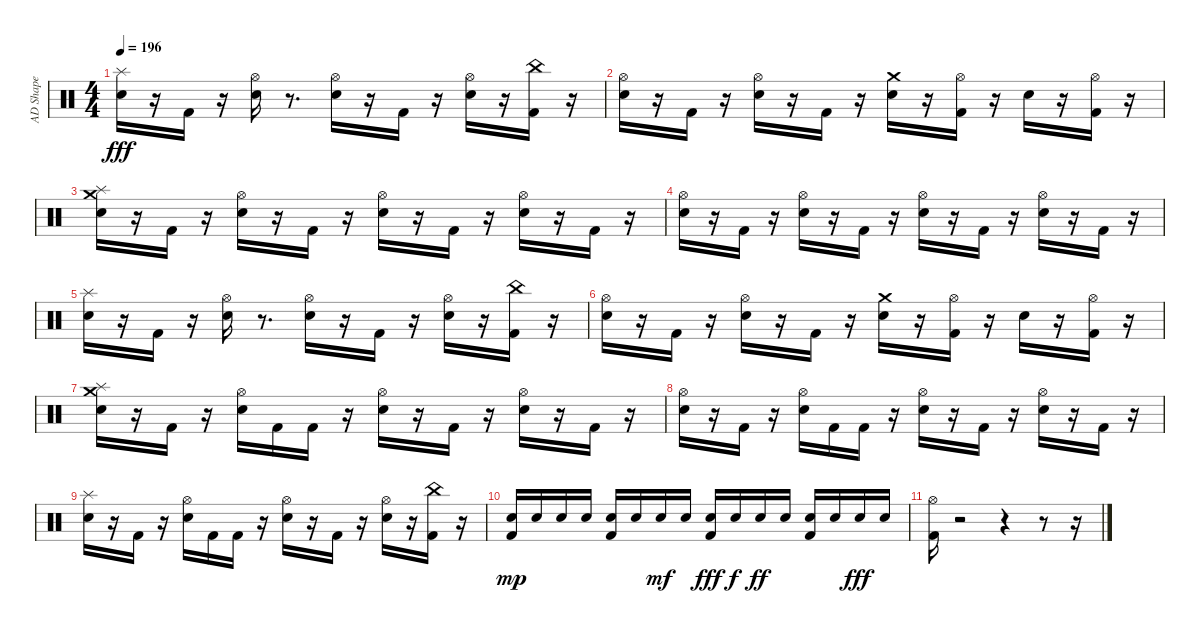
\track ("AD Shape" "AD Shape") {instrument percussion}
\staff {score}
\articulation defaults
\ts (4 4)
\tempo 196
\clef neutral
\ks c
("Snare (hit) 2" "Splash (hit)").16{dy fff} r.16 "Kick (hit) 2".16 r.16 ("Snare (hit) 2" "Hi-Hat (open)").16 r.8{d} ("Snare (hit) 2" "Hi-Hat (open)").16 r.16 "Kick (hit) 2".16 r.16 ("Snare (hit) 2" "Hi-Hat (open)").16 r.16 ("Kick (hit) 2" "China (hit)").16 r.16 |
("Snare (hit) 2" "Hi-Hat (open)").16 r.16 "Kick (hit) 2".16 r.16 ("Snare (hit) 2" "Hi-Hat (open)").16 r.16 "Kick (hit) 2".16 r.16 ("Snare (hit) 2" "Crash medium (hit)").16 r.16 ("Kick (hit) 2" "Hi-Hat (open)").16 r.16 "Snare (hit) 2".16 r.16 ("Kick (hit) 2" "Hi-Hat (open)").16 r.16 |
("Snare (hit) 2" "Splash (hit)" "Crash medium (hit)").16 r.16 "Kick (hit) 2".16 r.16 ("Snare (hit) 2" "Hi-Hat (open)").16 r.16 "Kick (hit) 2".16 r.16 ("Snare (hit) 2" "Hi-Hat (open)").16 r.16 "Kick (hit) 2".16 r.16 ("Snare (hit) 2" "Hi-Hat (open)").16 r.16 "Kick (hit) 2".16 r.16 |
("Snare (hit) 2" "Hi-Hat (open)").16 r.16 "Kick (hit) 2".16 r.16 ("Snare (hit) 2" "Hi-Hat (open)").16 r.16 "Kick (hit) 2".16 r.16 ("Snare (hit) 2" "Hi-Hat (open)").16 r.16 "Kick (hit) 2".16 r.16 ("Snare (hit) 2" "Hi-Hat (open)").16 r.16 "Kick (hit) 2".16 r.16 |
("Snare (hit) 2" "Splash (hit)").16 r.16 "Kick (hit) 2".16 r.16 ("Snare (hit) 2" "Hi-Hat (open)").16 r.8{d} ("Snare (hit) 2" "Hi-Hat (open)").16 r.16 "Kick (hit) 2".16 r.16 ("Snare (hit) 2" "Hi-Hat (open)").16 r.16 ("Kick (hit) 2" "China (hit)").16 r.16 |
("Snare (hit) 2" "Hi-Hat (open)").16 r.16 "Kick (hit) 2".16 r.16 ("Snare (hit) 2" "Hi-Hat (open)").16 r.16 "Kick (hit) 2".16 r.16 ("Snare (hit) 2" "Crash medium (hit)").16 r.16 ("Kick (hit) 2" "Hi-Hat (open)").16 r.16 "Snare (hit) 2".16 r.16 ("Kick (hit) 2" "Hi-Hat (open)").16 r.16 |
("Snare (hit) 2" "Splash (hit)" "Crash medium (hit)").16 r.16 "Kick (hit) 2".16 r.16 ("Snare (hit) 2" "Hi-Hat (open)").16 "Kick (hit) 2".16 "Kick (hit) 2".16 r.16 ("Snare (hit) 2" "Hi-Hat (open)").16 r.16 "Kick (hit) 2".16 r.16 ("Snare (hit) 2" "Hi-Hat (open)").16 r.16 "Kick (hit) 2".16 r.16 |
("Snare (hit) 2" "Hi-Hat (open)").16 r.16 "Kick (hit) 2".16 r.16 ("Snare (hit) 2" "Hi-Hat (open)").16 "Kick (hit) 2".16 "Kick (hit) 2".16 r.16 ("Snare (hit) 2" "Hi-Hat (open)").16 r.16 "Kick (hit) 2".16 r.16 ("Snare (hit) 2" "Hi-Hat (open)").16 r.16 "Kick (hit) 2".16 r.16 |
("Snare (hit) 2" "Splash (hit)").16 r.16 "Kick (hit) 2".16 r.16 ("Snare (hit) 2" "Hi-Hat (open)").16 "Kick (hit) 2".16 "Kick (hit) 2".16 r.16 ("Snare (hit) 2" "Hi-Hat (open)").16 r.16 "Kick (hit) 2".16 r.16 ("Snare (hit) 2" "Hi-Hat (open)").16 r.16 ("Kick (hit) 2" "China (hit)").16 r.16 |
("Kick (hit) 2" "Snare (hit) 2").16{dy mp} "Snare (hit) 2".16 "Snare (hit) 2".16 "Snare (hit) 2".16 ("Kick (hit) 2" "Snare (hit) 2").16 "Snare (hit) 2".16 "Snare (hit) 2".16{dy mf} "Snare (hit) 2".16 ("Kick (hit) 2" "Snare (hit) 2").16{dy fff} "Snare (hit) 2".16{dy f} "Snare (hit) 2".16{dy ff} "Snare (hit) 2".16 ("Kick (hit) 2" "Snare (hit) 2").16 "Snare (hit) 2".16 "Snare (hit) 2".16{dy fff} "Snare (hit) 2".16 |
("Kick (hit) 2" "Hi-Hat (open)").16 r.2 r.4 r.8 r.16
